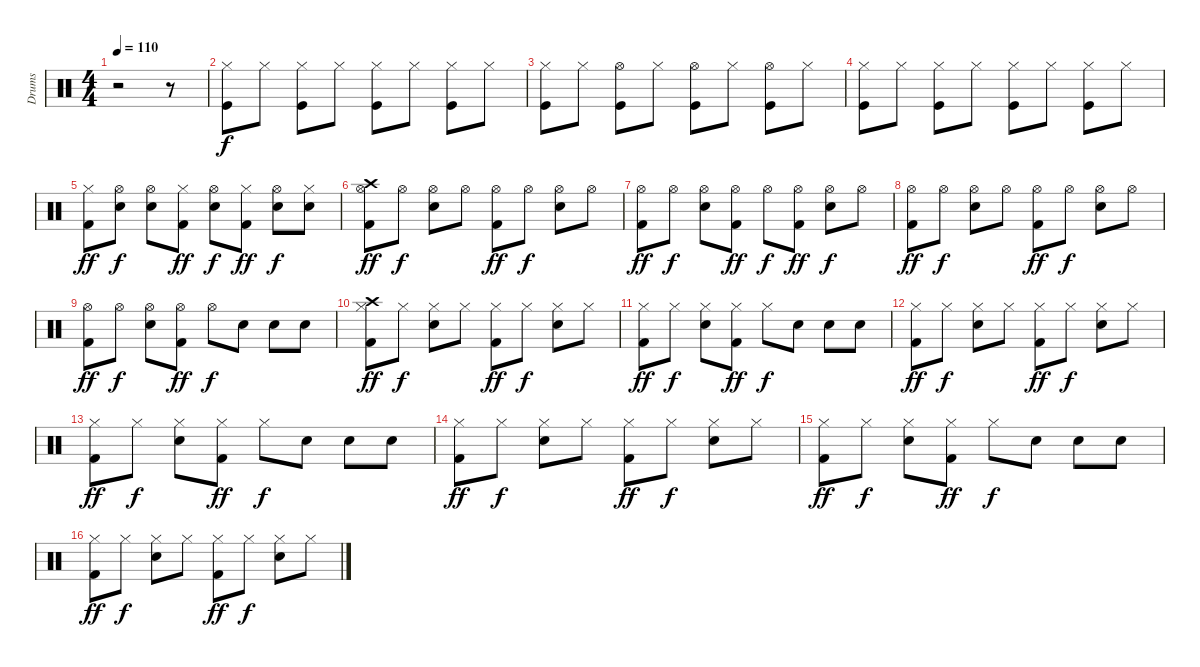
\track ("Drums" "Drums") {instrument percussion}
\staff {score}
\articulation defaults
\ts (4 4)
\tempo 110
\clef neutral
\ks c
r.2{dy f} r.8 |
("Hi-Hat (closed)" "Kick (hit)").8 "Hi-Hat (closed)".8 ("Hi-Hat (closed)" "Kick (hit)").8 "Hi-Hat (closed)".8 ("Hi-Hat (closed)" "Kick (hit)").8 "Hi-Hat (closed)".8 ("Hi-Hat (closed)" "Kick (hit)").8 "Hi-Hat (closed)".8 |
("Hi-Hat (closed)" "Kick (hit)").8 "Hi-Hat (closed)".8 ("Hi-Hat (open)" "Kick (hit)").8 "Hi-Hat (closed)".8 ("Hi-Hat (open)" "Kick (hit)").8 "Hi-Hat (closed)".8 ("Hi-Hat (open)" "Kick (hit)").8 "Hi-Hat (closed)".8 |
("Hi-Hat (closed)" "Kick (hit)").8 "Hi-Hat (closed)".8 ("Hi-Hat (closed)" "Kick (hit)").8 "Hi-Hat (closed)".8 ("Hi-Hat (closed)" "Kick (hit)").8 "Hi-Hat (closed)".8 ("Hi-Hat (closed)" "Kick (hit)").8 "Hi-Hat (closed)".8 |
("Hi-Hat (closed)" "Kick (hit) 2").8{dy ff} ("Hi-Hat (open)" "Electric Snare (hit)").8{dy f} ("Hi-Hat (open)" "Electric Snare (hit)").8 ("Hi-Hat (closed)" "Kick (hit) 2").8{dy ff} ("Hi-Hat (open)" "Electric Snare (hit)").8{dy f} ("Hi-Hat (closed)" "Kick (hit) 2").8{dy ff} ("Hi-Hat (open)" "Electric Snare (hit)").8{dy f} ("Hi-Hat (closed)" "Electric Snare (hit)").8 |
("Hi-Hat (open)" "Crash high (hit)" "Kick (hit) 2").8{dy ff} "Hi-Hat (open)".8{dy f} ("Hi-Hat (open)" "Electric Snare (hit)").8 "Hi-Hat (open)".8 ("Hi-Hat (open)" "Kick (hit) 2").8{dy ff} "Hi-Hat (open)".8{dy f} ("Hi-Hat (open)" "Electric Snare (hit)").8 "Hi-Hat (open)".8 |
("Hi-Hat (open)" "Kick (hit) 2").8{dy ff} "Hi-Hat (open)".8{dy f} ("Hi-Hat (open)" "Electric Snare (hit)").8 ("Hi-Hat (open)" "Kick (hit) 2").8{dy ff} "Hi-Hat (open)".8{dy f} ("Hi-Hat (open)" "Kick (hit) 2").8{dy ff} ("Hi-Hat (open)" "Electric Snare (hit)").8{dy f} "Hi-Hat (open)".8 |
("Hi-Hat (open)" "Kick (hit) 2").8{dy ff} "Hi-Hat (open)".8{dy f} ("Hi-Hat (open)" "Electric Snare (hit)").8 "Hi-Hat (open)".8 ("Hi-Hat (open)" "Kick (hit) 2").8{dy ff} "Hi-Hat (open)".8{dy f} ("Hi-Hat (open)" "Electric Snare (hit)").8 "Hi-Hat (open)".8 |
("Hi-Hat (open)" "Kick (hit) 2").8{dy ff} "Hi-Hat (open)".8{dy f} ("Hi-Hat (open)" "Electric Snare (hit)").8 ("Hi-Hat (open)" "Kick (hit) 2").8{dy ff} "Hi-Hat (open)".8{dy f} "Electric Snare (hit)".8 "Electric Snare (hit)".8 "Electric Snare (hit)".8 |
("Hi-Hat (closed)" "Crash high (hit)" "Kick (hit) 2").8{dy ff} "Hi-Hat (closed)".8{dy f} ("Hi-Hat (closed)" "Electric Snare (hit)").8 "Hi-Hat (closed)".8 ("Hi-Hat (closed)" "Kick (hit) 2").8{dy ff} "Hi-Hat (closed)".8{dy f} ("Hi-Hat (closed)" "Electric Snare (hit)").8 "Hi-Hat (closed)".8 |
("Hi-Hat (closed)" "Kick (hit) 2").8{dy ff} "Hi-Hat (closed)".8{dy f} ("Hi-Hat (closed)" "Electric Snare (hit)").8 ("Hi-Hat (closed)" "Kick (hit) 2").8{dy ff} "Hi-Hat (closed)".8{dy f} "Electric Snare (hit)".8 "Electric Snare (hit)".8 "Electric Snare (hit)".8 |
("Hi-Hat (closed)" "Kick (hit) 2").8{dy ff} "Hi-Hat (closed)".8{dy f} ("Hi-Hat (closed)" "Electric Snare (hit)").8 "Hi-Hat (closed)".8 ("Hi-Hat (closed)" "Kick (hit) 2").8{dy ff} "Hi-Hat (closed)".8{dy f} ("Hi-Hat (closed)" "Electric Snare (hit)").8 "Hi-Hat (closed)".8 |
("Hi-Hat (closed)" "Kick (hit) 2").8{dy ff} "Hi-Hat (closed)".8{dy f} ("Hi-Hat (closed)" "Electric Snare (hit)").8 ("Hi-Hat (closed)" "Kick (hit) 2").8{dy ff} "Hi-Hat (closed)".8{dy f} "Electric Snare (hit)".8 "Electric Snare (hit)".8 "Electric Snare (hit)".8 |
("Hi-Hat (closed)" "Kick (hit) 2").8{dy ff} "Hi-Hat (closed)".8{dy f} ("Hi-Hat (closed)" "Electric Snare (hit)").8 "Hi-Hat (closed)".8 ("Hi-Hat (closed)" "Kick (hit) 2").8{dy ff} "Hi-Hat (closed)".8{dy f} ("Hi-Hat (closed)" "Electric Snare (hit)").8 "Hi-Hat (closed)".8 |
("Hi-Hat (closed)" "Kick (hit) 2").8{dy ff} "Hi-Hat (closed)".8{dy f} ("Hi-Hat (closed)" "Electric Snare (hit)").8 ("Hi-Hat (closed)" "Kick (hit) 2").8{dy ff} "Hi-Hat (closed)".8{dy f} "Electric Snare (hit)".8 "Electric Snare (hit)".8 "Electric Snare (hit)".8 |
("Hi-Hat (closed)" "Kick (hit) 2").8{dy ff} "Hi-Hat (closed)".8{dy f} ("Hi-Hat (closed)" "Electric Snare (hit)").8 "Hi-Hat (closed)".8 ("Hi-Hat (closed)" "Kick (hit) 2").8{dy ff} "Hi-Hat (closed)".8{dy f} ("Hi-Hat (closed)" "Electric Snare (hit)").8 "Hi-Hat (closed)".8
